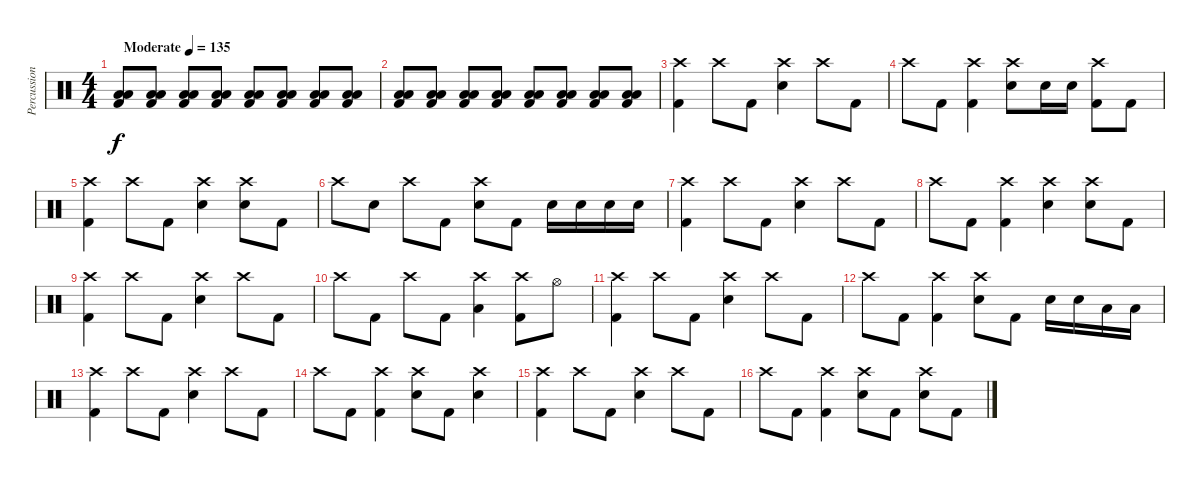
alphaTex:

\track ("Percussion" "Percussion") {instrument percussion}
\staff {score}
\articulation defaults
\ts (4 4)
\tempo (135 "Moderate")
\clef neutral
\ks c
("Low Tom (hit)" "Low Floor Tom (hit)" "Kick (hit) 2").8{dy f} ("Low Tom (hit)" "Low Floor Tom (hit)" "Kick (hit) 2").8 ("Low Tom (hit)" "Low Floor Tom (hit)" "Kick (hit) 2").8 ("Low Tom (hit)" "Low Floor Tom (hit)" "Kick (hit) 2").8 ("Low Tom (hit)" "Low Floor Tom (hit)" "Kick (hit) 2").8 ("Low Tom (hit)" "Low Floor Tom (hit)" "Kick (hit) 2").8 ("Low Tom (hit)" "Low Floor Tom (hit)" "Kick (hit) 2").8 ("Low Tom (hit)" "Low Floor Tom (hit)" "Kick (hit) 2").8 |
("Low Tom (hit)" "Low Floor Tom (hit)" "Kick (hit) 2").8 ("Low Tom (hit)" "Low Floor Tom (hit)" "Kick (hit) 2").8 ("Low Tom (hit)" "Low Floor Tom (hit)" "Kick (hit) 2").8 ("Low Tom (hit)" "Low Floor Tom (hit)" "Kick (hit) 2").8 ("Low Tom (hit)" "Low Floor Tom (hit)" "Kick (hit) 2").8 ("Low Tom (hit)" "Low Floor Tom (hit)" "Kick (hit) 2").8 ("Low Tom (hit)" "Low Floor Tom (hit)" "Kick (hit) 2").8 ("Low Tom (hit)" "Low Floor Tom (hit)" "Kick (hit) 2").8 |
("Crash high (hit)" "Kick (hit) 2").4 "Crash high (hit)".8 "Kick (hit) 2".8 ("Crash high (hit)" "Electric Snare (hit)").4 "Crash high (hit)".8 "Kick (hit) 2".8 |
"Crash high (hit)".8 "Kick (hit) 2".8 ("Crash high (hit)" "Kick (hit) 2").4 ("Crash high (hit)" "Electric Snare (hit)").8 "Electric Snare (hit)".16 "Electric Snare (hit)".16 ("Crash high (hit)" "Kick (hit) 2").8 "Kick (hit) 2".8 |
("Crash high (hit)" "Kick (hit) 2").4 "Crash high (hit)".8 "Kick (hit) 2".8 ("Crash high (hit)" "Electric Snare (hit)").4 ("Crash high (hit)" "Electric Snare (hit)").8 "Kick (hit) 2".8 |
"Crash high (hit)".8 "Electric Snare (hit)".8 "Crash high (hit)".8 "Kick (hit) 2".8 ("Crash high (hit)" "Electric Snare (hit)").8 "Kick (hit) 2".8 "Electric Snare (hit)".16 "Electric Snare (hit)".16 "Electric Snare (hit)".16 "Electric Snare (hit)".16 |
("Crash high (hit)" "Kick (hit) 2").4 "Crash high (hit)".8 "Kick (hit) 2".8 ("Crash high (hit)" "Electric Snare (hit)").4 "Crash high (hit)".8 "Kick (hit) 2".8 |
"Crash high (hit)".8 "Kick (hit) 2".8 ("Crash high (hit)" "Kick (hit) 2").4 ("Crash high (hit)" "Electric Snare (hit)").4 ("Crash high (hit)" "Electric Snare (hit)").8 "Kick (hit) 2".8 |
("Crash high (hit)" "Kick (hit) 2").4 "Crash high (hit)".8 "Kick (hit) 2".8 ("Crash high (hit)" "Electric Snare (hit)").4 "Crash high (hit)".8 "Kick (hit) 2".8 |
"Crash high (hit)".8 "Kick (hit) 2".8 "Crash high (hit)".8 "Kick (hit) 2".8 ("Crash high (hit)" "Low Tom (hit)").4 ("Crash high (hit)" "Kick (hit) 2").8 "Hi-Hat (open)".8 |
("Crash high (hit)" "Kick (hit) 2").4 "Crash high (hit)".8 "Kick (hit) 2".8 ("Crash high (hit)" "Electric Snare (hit)").4 "Crash high (hit)".8 "Kick (hit) 2".8 |
"Crash high (hit)".8 "Kick (hit) 2".8 ("Crash high (hit)" "Kick (hit) 2").4 ("Crash high (hit)" "Electric Snare (hit)").8 "Kick (hit) 2".8 "Electric Snare (hit)".16 "Electric Snare (hit)".16 "Low Tom (hit)".16 "Low Floor Tom (hit)".16 |
("Crash high (hit)" "Kick (hit) 2").4 "Crash high (hit)".8 "Kick (hit) 2".8 ("Crash high (hit)" "Electric Snare (hit)").4 "Crash high (hit)".8 "Kick (hit) 2".8 |
"Crash high (hit)".8 "Kick (hit) 2".8 ("Crash high (hit)" "Kick (hit) 2").4 ("Crash high (hit)" "Electric Snare (hit)").8 "Kick (hit) 2".8 ("Crash high (hit)" "Electric Snare (hit)").4 |
("Crash high (hit)" "Kick (hit) 2").4 "Crash high (hit)".8 "Kick (hit) 2".8 ("Crash high (hit)" "Electric Snare (hit)").4 "Crash high (hit)".8 "Kick (hit) 2".8 |
"Crash high (hit)".8 "Kick (hit) 2".8 ("Crash high (hit)" "Kick (hit) 2").4 ("Crash high (hit)" "Electric Snare (hit)").8 "Kick (hit) 2".8 ("Crash high (hit)" "Electric Snare (hit)").8 "Kick (hit) 2".8
